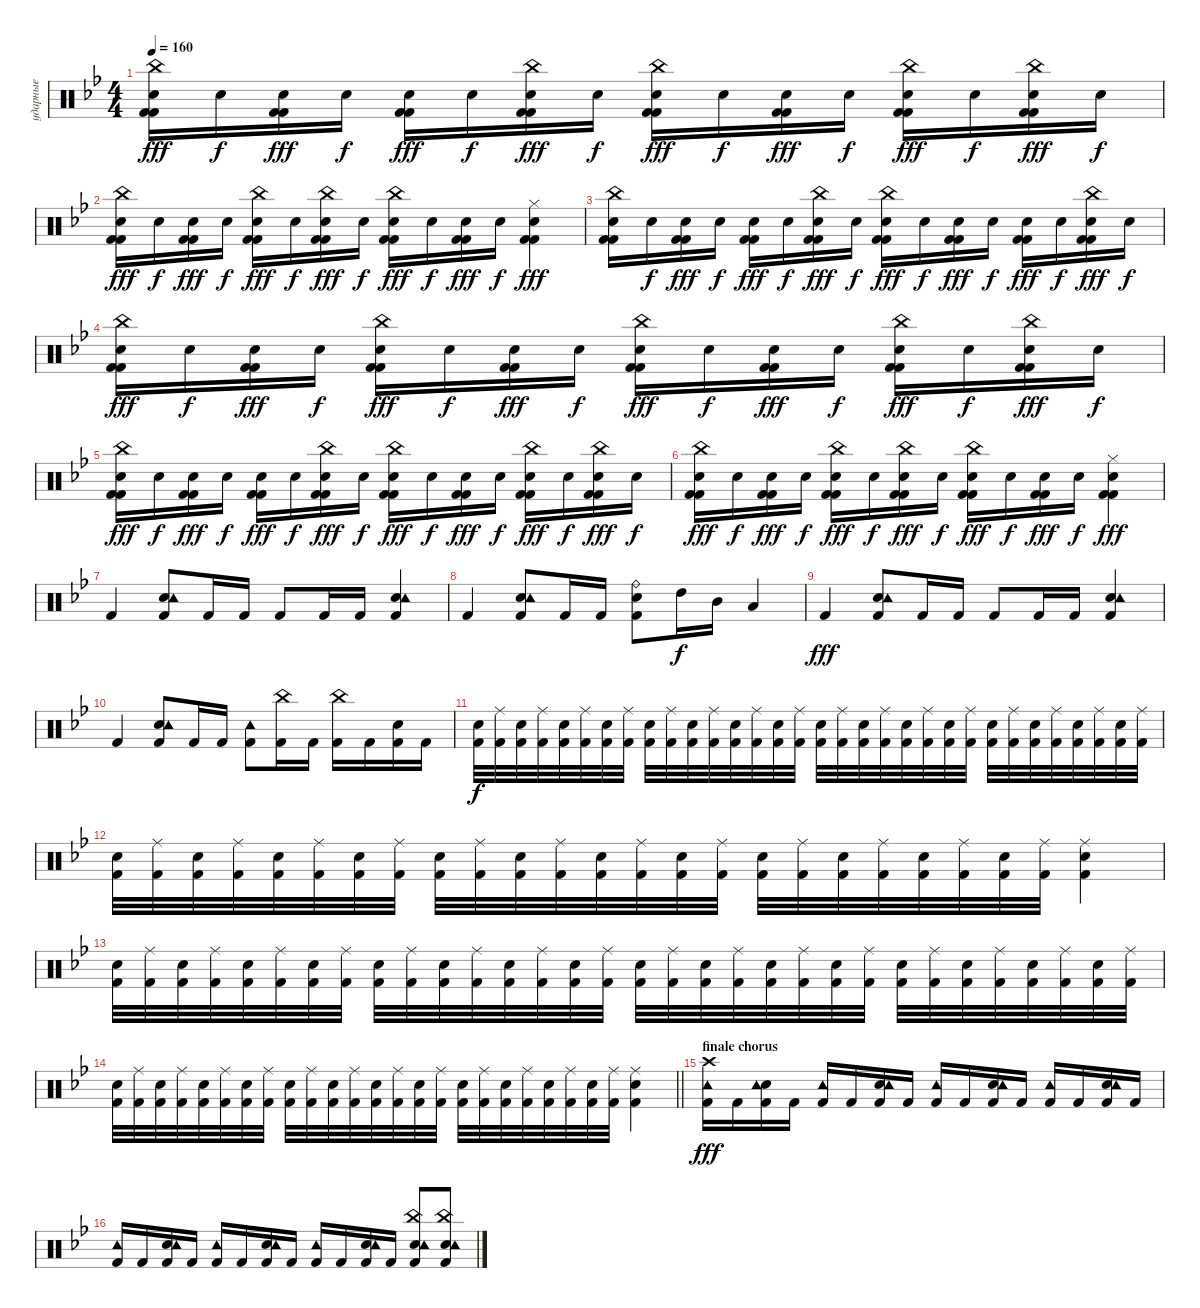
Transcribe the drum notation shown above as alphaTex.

\track ("ударные" "ударные") {instrument percussion}
\staff {score}
\articulation defaults
\ts (4 4)
\tempo 160
\clef neutral
\ks gminor
("Kick (hit) 2" "Electric Snare (hit)" "Kick (hit) 2" "China (hit)").16{dy fff} "Electric Snare (hit)".16{dy f} ("Kick (hit) 2" "Electric Snare (hit)" "Kick (hit) 2").16{dy fff} "Electric Snare (hit)".16{dy f} ("Kick (hit) 2" "Electric Snare (hit)" "Kick (hit) 2").16{dy fff} "Electric Snare (hit)".16{dy f} ("Kick (hit) 2" "Electric Snare (hit)" "Kick (hit) 2" "China (hit)").16{dy fff} "Electric Snare (hit)".16{dy f} ("Kick (hit) 2" "Electric Snare (hit)" "Kick (hit) 2" "China (hit)").16{dy fff} "Electric Snare (hit)".16{dy f} ("Kick (hit) 2" "Electric Snare (hit)" "Kick (hit) 2").16{dy fff} "Electric Snare (hit)".16{dy f} ("Kick (hit) 2" "Electric Snare (hit)" "Kick (hit) 2" "China (hit)").16{dy fff} "Electric Snare (hit)".16{dy f} ("Kick (hit) 2" "Electric Snare (hit)" "Kick (hit) 2" "China (hit)").16{dy fff} "Electric Snare (hit)".16{dy f} |
("Kick (hit) 2" "Electric Snare (hit)" "Kick (hit) 2" "China (hit)").16{dy fff} "Electric Snare (hit)".16{dy f} ("Kick (hit) 2" "Electric Snare (hit)" "Kick (hit) 2").16{dy fff} "Electric Snare (hit)".16{dy f} ("Kick (hit) 2" "Electric Snare (hit)" "Kick (hit) 2" "China (hit)").16{dy fff} "Electric Snare (hit)".16{dy f} ("Kick (hit) 2" "Electric Snare (hit)" "Kick (hit) 2" "China (hit)").16{dy fff} "Electric Snare (hit)".16{dy f} ("Kick (hit) 2" "Electric Snare (hit)" "Kick (hit) 2" "China (hit)").16{dy fff} "Electric Snare (hit)".16{dy f} ("Kick (hit) 2" "Electric Snare (hit)" "Kick (hit) 2").16{dy fff} "Electric Snare (hit)".16{dy f} ("Kick (hit) 2" "Electric Snare (hit)" "Kick (hit) 2" "Hi-Hat (closed)").4{dy fff} |
("Kick (hit) 2" "Electric Snare (hit)" "Kick (hit) 2" "China (hit)").16 "Electric Snare (hit)".16{dy f} ("Kick (hit) 2" "Electric Snare (hit)" "Kick (hit) 2").16{dy fff} "Electric Snare (hit)".16{dy f} ("Kick (hit) 2" "Electric Snare (hit)" "Kick (hit) 2").16{dy fff} "Electric Snare (hit)".16{dy f} ("Kick (hit) 2" "Electric Snare (hit)" "Kick (hit) 2" "China (hit)").16{dy fff} "Electric Snare (hit)".16{dy f} ("Kick (hit) 2" "Electric Snare (hit)" "Kick (hit) 2" "China (hit)").16{dy fff} "Electric Snare (hit)".16{dy f} ("Kick (hit) 2" "Electric Snare (hit)" "Kick (hit) 2").16{dy fff} "Electric Snare (hit)".16{dy f} ("Kick (hit) 2" "Electric Snare (hit)" "Kick (hit) 2").16{dy fff} "Electric Snare (hit)".16{dy f} ("Kick (hit) 2" "Electric Snare (hit)" "Kick (hit) 2" "China (hit)").16{dy fff} "Electric Snare (hit)".16{dy f} |
("Kick (hit) 2" "Electric Snare (hit)" "Kick (hit) 2" "China (hit)").16{dy fff} "Electric Snare (hit)".16{dy f} ("Kick (hit) 2" "Electric Snare (hit)" "Kick (hit) 2").16{dy fff} "Electric Snare (hit)".16{dy f} ("Kick (hit) 2" "Electric Snare (hit)" "Kick (hit) 2" "China (hit)").16{dy fff} "Electric Snare (hit)".16{dy f} ("Kick (hit) 2" "Electric Snare (hit)" "Kick (hit) 2").16{dy fff} "Electric Snare (hit)".16{dy f} ("Kick (hit) 2" "Electric Snare (hit)" "Kick (hit) 2" "China (hit)").16{dy fff} "Electric Snare (hit)".16{dy f} ("Kick (hit) 2" "Electric Snare (hit)" "Kick (hit) 2").16{dy fff} "Electric Snare (hit)".16{dy f} ("Kick (hit) 2" "Electric Snare (hit)" "Kick (hit) 2" "China (hit)").16{dy fff} "Electric Snare (hit)".16{dy f} ("Kick (hit) 2" "Electric Snare (hit)" "Kick (hit) 2" "China (hit)").16{dy fff} "Electric Snare (hit)".16{dy f} |
("Kick (hit) 2" "Electric Snare (hit)" "Kick (hit) 2" "China (hit)").16{dy fff} "Electric Snare (hit)".16{dy f} ("Kick (hit) 2" "Electric Snare (hit)" "Kick (hit) 2").16{dy fff} "Electric Snare (hit)".16{dy f} ("Kick (hit) 2" "Electric Snare (hit)" "Kick (hit) 2").16{dy fff} "Electric Snare (hit)".16{dy f} ("Kick (hit) 2" "Electric Snare (hit)" "Kick (hit) 2" "China (hit)").16{dy fff} "Electric Snare (hit)".16{dy f} ("Kick (hit) 2" "Electric Snare (hit)" "Kick (hit) 2" "China (hit)").16{dy fff} "Electric Snare (hit)".16{dy f} ("Kick (hit) 2" "Electric Snare (hit)" "Kick (hit) 2").16{dy fff} "Electric Snare (hit)".16{dy f} ("Kick (hit) 2" "Electric Snare (hit)" "Kick (hit) 2" "China (hit)").16{dy fff} "Electric Snare (hit)".16{dy f} ("Kick (hit) 2" "Electric Snare (hit)" "Kick (hit) 2" "China (hit)").16{dy fff} "Electric Snare (hit)".16{dy f} |
("Kick (hit) 2" "Electric Snare (hit)" "Kick (hit) 2" "China (hit)").16{dy fff} "Electric Snare (hit)".16{dy f} ("Kick (hit) 2" "Electric Snare (hit)" "Kick (hit) 2").16{dy fff} "Electric Snare (hit)".16{dy f} ("Kick (hit) 2" "Electric Snare (hit)" "Kick (hit) 2" "China (hit)").16{dy fff} "Electric Snare (hit)".16{dy f} ("Kick (hit) 2" "Electric Snare (hit)" "Kick (hit) 2" "China (hit)").16{dy fff} "Electric Snare (hit)".16{dy f} ("Kick (hit) 2" "Electric Snare (hit)" "Kick (hit) 2" "China (hit)").16{dy fff} "Electric Snare (hit)".16{dy f} ("Kick (hit) 2" "Electric Snare (hit)" "Kick (hit) 2").16{dy fff} "Electric Snare (hit)".16{dy f} ("Kick (hit) 2" "Electric Snare (hit)" "Kick (hit) 2" "Hi-Hat (closed)").4{dy fff} |
"Kick (hit) 2".4 ("Electric Snare (hit)" "Tambourine (hit)" "Kick (hit) 2").8 "Kick (hit) 2".16 "Kick (hit) 2".16 "Kick (hit) 2".8 "Kick (hit) 2".16 "Kick (hit) 2".16 ("Electric Snare (hit)" "Tambourine (hit)" "Kick (hit) 2").4 |
"Kick (hit) 2".4 ("Electric Snare (hit)" "Tambourine (hit)" "Kick (hit) 2").8 "Kick (hit) 2".16 "Kick (hit) 2".16 ("Ride (bell)" "Electric Snare (hit)" "Kick (hit) 2").8 "High Tom (hit)".16{dy f} "Mid Tom (hit)".16 "Low Tom (hit)".4 |
"Kick (hit) 2".4{dy fff} ("Electric Snare (hit)" "Tambourine (hit)" "Kick (hit) 2").8 "Kick (hit) 2".16 "Kick (hit) 2".16 "Kick (hit) 2".8 "Kick (hit) 2".16 "Kick (hit) 2".16 ("Electric Snare (hit)" "Tambourine (hit)" "Kick (hit) 2").4 |
"Kick (hit) 2".4 ("Electric Snare (hit)" "Tambourine (hit)" "Kick (hit) 2").8 "Kick (hit) 2".16 "Kick (hit) 2".16 ("Tambourine (hit)" "Kick (hit) 2").8 ("China (hit)" "Kick (hit) 2").16 "Kick (hit) 2".16 ("China (hit)" "Kick (hit) 2").16 "Kick (hit) 2".16 ("Electric Snare (hit)" "Kick (hit) 2").16 "Kick (hit) 2".16 |
("Kick (hit) 2" "Electric Snare (hit)").32{dy f} ("Kick (hit) 2" "Ride (middle)").32 ("Kick (hit) 2" "Electric Snare (hit)").32 ("Kick (hit) 2" "Ride (middle)").32 ("Kick (hit) 2" "Electric Snare (hit)").32 ("Kick (hit) 2" "Ride (middle)").32 ("Kick (hit) 2" "Electric Snare (hit)").32 ("Kick (hit) 2" "Ride (middle)").32 ("Kick (hit) 2" "Electric Snare (hit)").32 ("Kick (hit) 2" "Ride (middle)").32 ("Kick (hit) 2" "Electric Snare (hit)").32 ("Kick (hit) 2" "Ride (middle)").32 ("Kick (hit) 2" "Electric Snare (hit)").32 ("Kick (hit) 2" "Ride (middle)").32 ("Kick (hit) 2" "Electric Snare (hit)").32 ("Kick (hit) 2" "Ride (middle)").32 ("Kick (hit) 2" "Electric Snare (hit)").32 ("Kick (hit) 2" "Ride (middle)").32 ("Kick (hit) 2" "Electric Snare (hit)").32 ("Kick (hit) 2" "Ride (middle)").32 ("Kick (hit) 2" "Electric Snare (hit)").32 ("Kick (hit) 2" "Ride (middle)").32 ("Kick (hit) 2" "Electric Snare (hit)").32 ("Kick (hit) 2" "Ride (middle)").32 ("Kick (hit) 2" "Electric Snare (hit)").32 ("Kick (hit) 2" "Ride (middle)").32 ("Kick (hit) 2" "Electric Snare (hit)").32 ("Kick (hit) 2" "Ride (middle)").32 ("Kick (hit) 2" "Electric Snare (hit)").32 ("Kick (hit) 2" "Ride (middle)").32 ("Kick (hit) 2" "Electric Snare (hit)").32 ("Kick (hit) 2" "Ride (middle)").32 |
("Kick (hit) 2" "Electric Snare (hit)").32 ("Kick (hit) 2" "Ride (middle)").32 ("Kick (hit) 2" "Electric Snare (hit)").32 ("Kick (hit) 2" "Ride (middle)").32 ("Kick (hit) 2" "Electric Snare (hit)").32 ("Kick (hit) 2" "Ride (middle)").32 ("Kick (hit) 2" "Electric Snare (hit)").32 ("Kick (hit) 2" "Ride (middle)").32 ("Kick (hit) 2" "Electric Snare (hit)").32 ("Kick (hit) 2" "Ride (middle)").32 ("Kick (hit) 2" "Electric Snare (hit)").32 ("Kick (hit) 2" "Ride (middle)").32 ("Kick (hit) 2" "Electric Snare (hit)").32 ("Kick (hit) 2" "Ride (middle)").32 ("Kick (hit) 2" "Electric Snare (hit)").32 ("Kick (hit) 2" "Ride (middle)").32 ("Kick (hit) 2" "Electric Snare (hit)").32 ("Kick (hit) 2" "Ride (middle)").32 ("Kick (hit) 2" "Electric Snare (hit)").32 ("Kick (hit) 2" "Ride (middle)").32 ("Kick (hit) 2" "Electric Snare (hit)").32 ("Kick (hit) 2" "Ride (middle)").32 ("Kick (hit) 2" "Electric Snare (hit)").32 ("Kick (hit) 2" "Ride (middle)").32 ("Kick (hit) 2" "Electric Snare (hit)" "Ride (middle)").4 |
("Kick (hit) 2" "Electric Snare (hit)").32 ("Kick (hit) 2" "Ride (middle)").32 ("Kick (hit) 2" "Electric Snare (hit)").32 ("Kick (hit) 2" "Ride (middle)").32 ("Kick (hit) 2" "Electric Snare (hit)").32 ("Kick (hit) 2" "Ride (middle)").32 ("Kick (hit) 2" "Electric Snare (hit)").32 ("Kick (hit) 2" "Ride (middle)").32 ("Kick (hit) 2" "Electric Snare (hit)").32 ("Kick (hit) 2" "Ride (middle)").32 ("Kick (hit) 2" "Electric Snare (hit)").32 ("Kick (hit) 2" "Ride (middle)").32 ("Kick (hit) 2" "Electric Snare (hit)").32 ("Kick (hit) 2" "Ride (middle)").32 ("Kick (hit) 2" "Electric Snare (hit)").32 ("Kick (hit) 2" "Ride (middle)").32 ("Kick (hit) 2" "Electric Snare (hit)").32 ("Kick (hit) 2" "Ride (middle)").32 ("Kick (hit) 2" "Electric Snare (hit)").32 ("Kick (hit) 2" "Ride (middle)").32 ("Kick (hit) 2" "Electric Snare (hit)").32 ("Kick (hit) 2" "Ride (middle)").32 ("Kick (hit) 2" "Electric Snare (hit)").32 ("Kick (hit) 2" "Ride (middle)").32 ("Kick (hit) 2" "Electric Snare (hit)").32 ("Kick (hit) 2" "Ride (middle)").32 ("Kick (hit) 2" "Electric Snare (hit)").32 ("Kick (hit) 2" "Ride (middle)").32 ("Kick (hit) 2" "Electric Snare (hit)").32 ("Kick (hit) 2" "Ride (middle)").32 ("Kick (hit) 2" "Electric Snare (hit)").32 ("Kick (hit) 2" "Ride (middle)").32 |
\barLineRight lightlight
("Kick (hit) 2" "Electric Snare (hit)").32 ("Kick (hit) 2" "Ride (middle)").32 ("Kick (hit) 2" "Electric Snare (hit)").32 ("Kick (hit) 2" "Ride (middle)").32 ("Kick (hit) 2" "Electric Snare (hit)").32 ("Kick (hit) 2" "Ride (middle)").32 ("Kick (hit) 2" "Electric Snare (hit)").32 ("Kick (hit) 2" "Ride (middle)").32 ("Kick (hit) 2" "Electric Snare (hit)").32 ("Kick (hit) 2" "Ride (middle)").32 ("Kick (hit) 2" "Electric Snare (hit)").32 ("Kick (hit) 2" "Ride (middle)").32 ("Kick (hit) 2" "Electric Snare (hit)").32 ("Kick (hit) 2" "Ride (middle)").32 ("Kick (hit) 2" "Electric Snare (hit)").32 ("Kick (hit) 2" "Ride (middle)").32 ("Kick (hit) 2" "Electric Snare (hit)").32 ("Kick (hit) 2" "Ride (middle)").32 ("Kick (hit) 2" "Electric Snare (hit)").32 ("Kick (hit) 2" "Ride (middle)").32 ("Kick (hit) 2" "Electric Snare (hit)").32 ("Kick (hit) 2" "Ride (middle)").32 ("Kick (hit) 2" "Electric Snare (hit)").32 ("Kick (hit) 2" "Ride (middle)").32 ("Kick (hit) 2" "Electric Snare (hit)" "Ride (middle)").4 |
\section ("" "finale chorus")
("Crash high (hit)" "Tambourine (hit)" "Kick (hit) 2").16{dy fff} "Kick (hit) 2".16 ("Electric Snare (hit)" "Tambourine (hit)" "Kick (hit) 2").16 "Kick (hit) 2".16 ("Tambourine (hit)" "Kick (hit) 2").16 "Kick (hit) 2".16 ("Electric Snare (hit)" "Tambourine (hit)" "Kick (hit) 2").16 "Kick (hit) 2".16 ("Tambourine (hit)" "Kick (hit) 2").16 "Kick (hit) 2".16 ("Electric Snare (hit)" "Tambourine (hit)" "Kick (hit) 2").16 "Kick (hit) 2".16 ("Tambourine (hit)" "Kick (hit) 2").16 "Kick (hit) 2".16 ("Electric Snare (hit)" "Tambourine (hit)" "Kick (hit) 2").16 "Kick (hit) 2".16 |
("Tambourine (hit)" "Kick (hit) 2").16 "Kick (hit) 2".16 ("Electric Snare (hit)" "Tambourine (hit)" "Kick (hit) 2").16 "Kick (hit) 2".16 ("Tambourine (hit)" "Kick (hit) 2").16 "Kick (hit) 2".16 ("Electric Snare (hit)" "Tambourine (hit)" "Kick (hit) 2").16 "Kick (hit) 2".16 ("Tambourine (hit)" "Kick (hit) 2").16 "Kick (hit) 2".16 ("Electric Snare (hit)" "Tambourine (hit)" "Kick (hit) 2").16 "Kick (hit) 2".16 ("China (hit)" "Electric Snare (hit)" "Tambourine (hit)" "Kick (hit) 2").8 ("China (hit)" "Electric Snare (hit)" "Tambourine (hit)" "Kick (hit) 2").8
